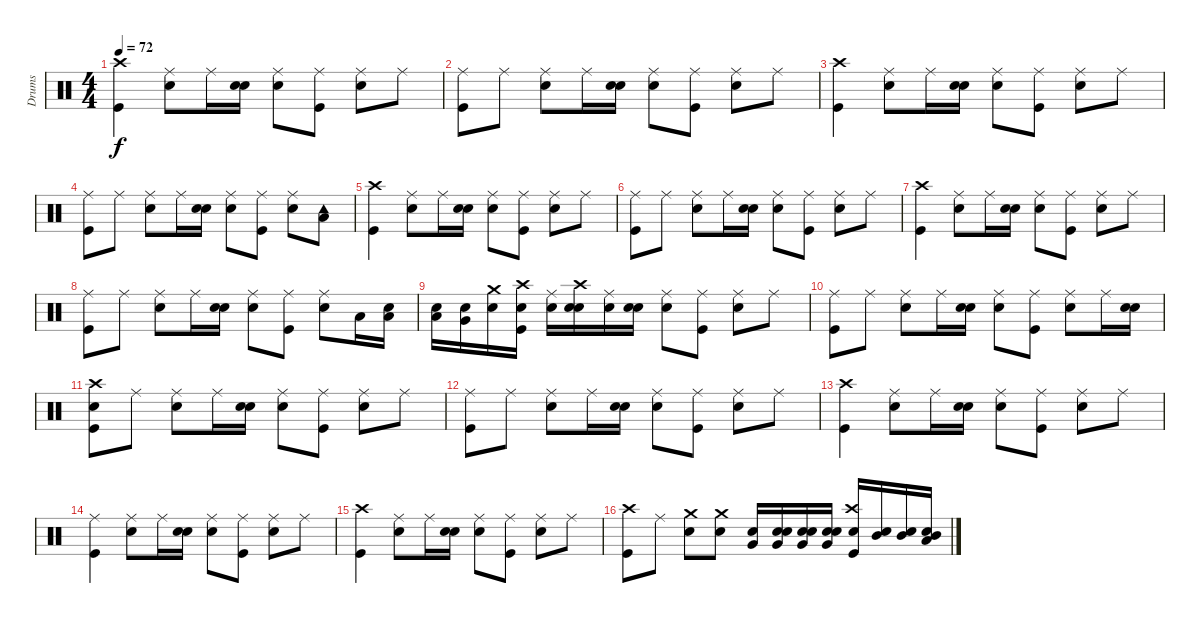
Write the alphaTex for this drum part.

\track ("Drums" "Drums") {instrument percussion}
\staff {score}
\articulation defaults
\ts (4 4)
\tempo 72
\clef neutral
\ks c
("Kick (hit)" "Crash high (hit)").4{dy f} ("Snare (hit) 2" "Ride (middle)").8 "Ride (middle)".16 ("Snare (hit)" "Snare (hit) 2").16 ("Snare (hit)" "Ride (middle)").8 ("Kick (hit)" "Ride (middle)").8 ("Snare (hit) 2" "Ride (middle)").8 "Ride (middle)".8 |
("Kick (hit)" "Ride (middle)").8 "Ride (middle)".8 ("Snare (hit) 2" "Ride (middle)").8 "Ride (middle)".16 ("Snare (hit)" "Snare (hit) 2").16 ("Snare (hit)" "Ride (middle)").8 ("Kick (hit)" "Ride (middle)").8 ("Snare (hit) 2" "Ride (middle)").8 "Ride (middle)".8 |
("Kick (hit)" "Crash high (hit)").4 ("Snare (hit) 2" "Ride (middle)").8 "Ride (middle)".16 ("Snare (hit)" "Snare (hit) 2").16 ("Snare (hit)" "Ride (middle)").8 ("Kick (hit)" "Ride (middle)").8 ("Snare (hit) 2" "Ride (middle)").8 "Ride (middle)".8 |
("Kick (hit)" "Ride (middle)").8 "Ride (middle)".8 ("Snare (hit) 2" "Ride (middle)").8 "Ride (middle)".16 ("Snare (hit)" "Snare (hit) 2").16 ("Snare (hit)" "Ride (middle)").8 ("Kick (hit)" "Ride (middle)").8 ("Snare (hit) 2" "Ride (middle)").8 ("Low Tom (hit)" "Tambourine (hit)").8 |
("Kick (hit)" "Crash high (hit)").4 ("Snare (hit) 2" "Ride (middle)").8 "Ride (middle)".16 ("Snare (hit)" "Snare (hit) 2").16 ("Snare (hit)" "Ride (middle)").8 ("Kick (hit)" "Ride (middle)").8 ("Snare (hit) 2" "Ride (middle)").8 "Ride (middle)".8 |
("Kick (hit)" "Ride (middle)").8 "Ride (middle)".8 ("Snare (hit) 2" "Ride (middle)").8 "Ride (middle)".16 ("Snare (hit)" "Snare (hit) 2").16 ("Snare (hit)" "Ride (middle)").8 ("Kick (hit)" "Ride (middle)").8 ("Snare (hit) 2" "Ride (middle)").8 "Ride (middle)".8 |
("Kick (hit)" "Crash high (hit)").4 ("Snare (hit) 2" "Ride (middle)").8 "Ride (middle)".16 ("Snare (hit)" "Snare (hit) 2").16 ("Snare (hit)" "Ride (middle)").8 ("Kick (hit)" "Ride (middle)").8 ("Snare (hit) 2" "Ride (middle)").8 "Ride (middle)".8 |
("Kick (hit)" "Ride (middle)").8 "Ride (middle)".8 ("Snare (hit) 2" "Ride (middle)").8 "Ride (middle)".16 ("Snare (hit)" "Snare (hit) 2").16 ("Snare (hit)" "Ride (middle)").8 ("Kick (hit)" "Ride (middle)").8 ("Snare (hit) 2" "Ride (middle)").8 "Low Tom (hit)".16 ("Snare (hit)" "Low Tom (hit)").16 |
("Snare (hit)" "Low Tom (hit)").16 ("Snare (hit)" "Very Low Tom (hit)").16 ("Snare (hit)" "Crash medium (hit)").16 ("Snare (hit)" "Kick (hit)" "Crash high (hit)").16 ("Snare (hit)" "Ride (middle)").16 ("Snare (hit)" "Snare (hit) 2" "Crash high (hit)").16 ("Snare (hit)" "Ride (middle)").16 ("Snare (hit)" "Snare (hit) 2").16 ("Snare (hit)" "Ride (middle)").8 ("Kick (hit)" "Ride (middle)").8 ("Snare (hit) 2" "Ride (middle)").8 "Ride (middle)".8 |
("Kick (hit)" "Ride (middle)").8 "Ride (middle)".8 ("Snare (hit) 2" "Ride (middle)").8 "Ride (middle)".16 ("Snare (hit)" "Snare (hit) 2").16 ("Snare (hit)" "Ride (middle)").8 ("Kick (hit)" "Ride (middle)").8 ("Snare (hit) 2" "Ride (middle)").8 "Ride (middle)".16 ("Snare (hit)" "Snare (hit) 2").16 |
("Snare (hit)" "Kick (hit)" "Crash high (hit)").8 "Ride (middle)".8 ("Snare (hit) 2" "Ride (middle)").8 "Ride (middle)".16 ("Snare (hit)" "Snare (hit) 2").16 ("Snare (hit)" "Ride (middle)").8 ("Kick (hit)" "Ride (middle)").8 ("Snare (hit) 2" "Ride (middle)").8 "Ride (middle)".8 |
("Kick (hit)" "Ride (middle)").8 "Ride (middle)".8 ("Snare (hit) 2" "Ride (middle)").8 "Ride (middle)".16 ("Snare (hit)" "Snare (hit) 2").16 ("Snare (hit)" "Ride (middle)").8 ("Kick (hit)" "Ride (middle)").8 ("Snare (hit) 2" "Ride (middle)").8 "Ride (middle)".8 |
("Kick (hit)" "Crash high (hit)").4 ("Snare (hit) 2" "Ride (middle)").8 "Ride (middle)".16 ("Snare (hit)" "Snare (hit) 2").16 ("Snare (hit)" "Ride (middle)").8 ("Kick (hit)" "Ride (middle)").8 ("Snare (hit) 2" "Ride (middle)").8 "Ride (middle)".8 |
("Kick (hit)" "Ride (middle)").4 ("Snare (hit) 2" "Ride (middle)").8 "Ride (middle)".16 ("Snare (hit)" "Snare (hit) 2").16 ("Snare (hit)" "Ride (middle)").8 ("Kick (hit)" "Ride (middle)").8 ("Snare (hit) 2" "Ride (middle)").8 "Ride (middle)".8 |
("Kick (hit)" "Crash high (hit)").4 ("Snare (hit) 2" "Ride (middle)").8 "Ride (middle)".16 ("Snare (hit)" "Snare (hit) 2").16 ("Snare (hit)" "Ride (middle)").8 ("Kick (hit)" "Ride (middle)").8 ("Snare (hit) 2" "Ride (middle)").8 "Ride (middle)".8 |
("Kick (hit)" "Crash high (hit)").8 "Ride (middle)".8 ("Snare (hit) 2" "Crash medium (hit)").8 ("Snare (hit) 2" "Crash medium (hit)").8 ("Very Low Tom (hit)" "Snare (hit) 2").16 ("Snare (hit)" "Very Low Tom (hit)" "Snare (hit) 2").16 ("Snare (hit)" "Very Low Tom (hit)" "Snare (hit) 2").16 ("Snare (hit)" "Very Low Tom (hit)" "Snare (hit) 2").16 ("Snare (hit)" "Kick (hit)" "Crash high (hit)").16 ("Snare (hit)" "Mid Tom (hit)").16 ("Snare (hit)" "Mid Tom (hit)").16 ("Snare (hit)" "Low Tom (hit)" "Mid Tom (hit)").16
